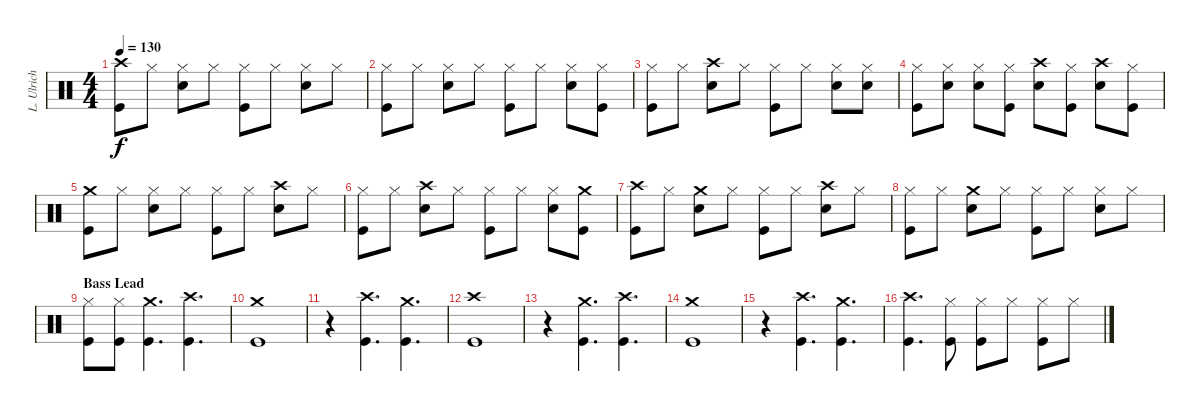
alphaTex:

\track ("L. Ulrich" "L. Ulrich") {instrument percussion}
\staff {score}
\articulation defaults
\ts (4 4)
\tempo 130
\clef neutral
\ks c
("Crash high (hit)" "Kick (hit)").8{dy f} "Hi-Hat (closed)".8 ("Hi-Hat (closed)" "Snare (hit) 2").8 "Hi-Hat (closed)".8 ("Hi-Hat (closed)" "Kick (hit)").8 "Hi-Hat (closed)".8 ("Hi-Hat (closed)" "Snare (hit) 2").8 "Hi-Hat (closed)".8 |
("Hi-Hat (closed)" "Kick (hit)").8 "Hi-Hat (closed)".8 ("Hi-Hat (closed)" "Snare (hit) 2").8 "Hi-Hat (closed)".8 ("Hi-Hat (closed)" "Kick (hit)").8 "Hi-Hat (closed)".8 ("Hi-Hat (closed)" "Snare (hit) 2").8 ("Hi-Hat (closed)" "Kick (hit)").8 |
("Hi-Hat (closed)" "Kick (hit)").8 "Hi-Hat (closed)".8 ("Crash high (hit)" "Snare (hit) 2").8 "Hi-Hat (closed)".8 ("Hi-Hat (closed)" "Kick (hit)").8 "Hi-Hat (closed)".8 ("Hi-Hat (closed)" "Snare (hit) 2").8 ("Hi-Hat (closed)" "Snare (hit) 2").8 |
("Hi-Hat (closed)" "Kick (hit)").8 ("Hi-Hat (closed)" "Snare (hit) 2").8 ("Hi-Hat (closed)" "Snare (hit) 2").8 ("Hi-Hat (closed)" "Kick (hit)").8 ("Crash high (hit)" "Snare (hit) 2").8 ("Hi-Hat (closed)" "Kick (hit)").8 ("Crash high (hit)" "Snare (hit) 2").8 ("Hi-Hat (closed)" "Kick (hit)").8 |
("Crash medium (hit)" "Kick (hit)").8 "Hi-Hat (closed)".8 ("Hi-Hat (closed)" "Snare (hit) 2").8 "Hi-Hat (closed)".8 ("Hi-Hat (closed)" "Kick (hit)").8 "Hi-Hat (closed)".8 ("Crash high (hit)" "Snare (hit) 2").8 "Hi-Hat (closed)".8 |
("Hi-Hat (closed)" "Kick (hit)").8 "Hi-Hat (closed)".8 ("Crash high (hit)" "Snare (hit) 2").8 "Hi-Hat (closed)".8 ("Hi-Hat (closed)" "Kick (hit)").8 "Hi-Hat (closed)".8 ("Hi-Hat (closed)" "Snare (hit) 2").8 ("Crash medium (hit)" "Kick (hit)").8 |
("Crash high (hit)" "Kick (hit)").8 "Hi-Hat (closed)".8 ("Crash medium (hit)" "Snare (hit) 2").8 "Hi-Hat (closed)".8 ("Hi-Hat (closed)" "Kick (hit)").8 "Hi-Hat (closed)".8 ("Crash high (hit)" "Snare (hit) 2").8 "Hi-Hat (closed)".8 |
("Hi-Hat (closed)" "Kick (hit)").8 "Hi-Hat (closed)".8 ("Crash medium (hit)" "Snare (hit) 2").8 "Hi-Hat (closed)".8 ("Hi-Hat (closed)" "Kick (hit)").8 "Hi-Hat (closed)".8 ("Hi-Hat (closed)" "Snare (hit) 2").8 "Hi-Hat (closed)".8 |
\section ("" "Bass Lead")
("Hi-Hat (closed)" "Kick (hit)").8 ("Hi-Hat (closed)" "Kick (hit)").8 ("Crash medium (hit)" "Kick (hit)").4{d} ("Crash high (hit)" "Kick (hit)").4{d} |
("Crash medium (hit)" "Kick (hit)").1 |
r.4 ("Crash high (hit)" "Kick (hit)").4{d} ("Crash medium (hit)" "Kick (hit)").4{d} |
("Crash high (hit)" "Kick (hit)").1 |
r.4 ("Crash medium (hit)" "Kick (hit)").4{d} ("Crash high (hit)" "Kick (hit)").4{d} |
("Crash medium (hit)" "Kick (hit)").1 |
r.4 ("Crash high (hit)" "Kick (hit)").4{d} ("Crash medium (hit)" "Kick (hit)").4{d} |
("Crash high (hit)" "Kick (hit)").4{d} ("Hi-Hat (closed)" "Kick (hit)").8 ("Hi-Hat (closed)" "Kick (hit)").8 "Hi-Hat (closed)".8 ("Hi-Hat (closed)" "Kick (hit)").8 "Hi-Hat (closed)".8
